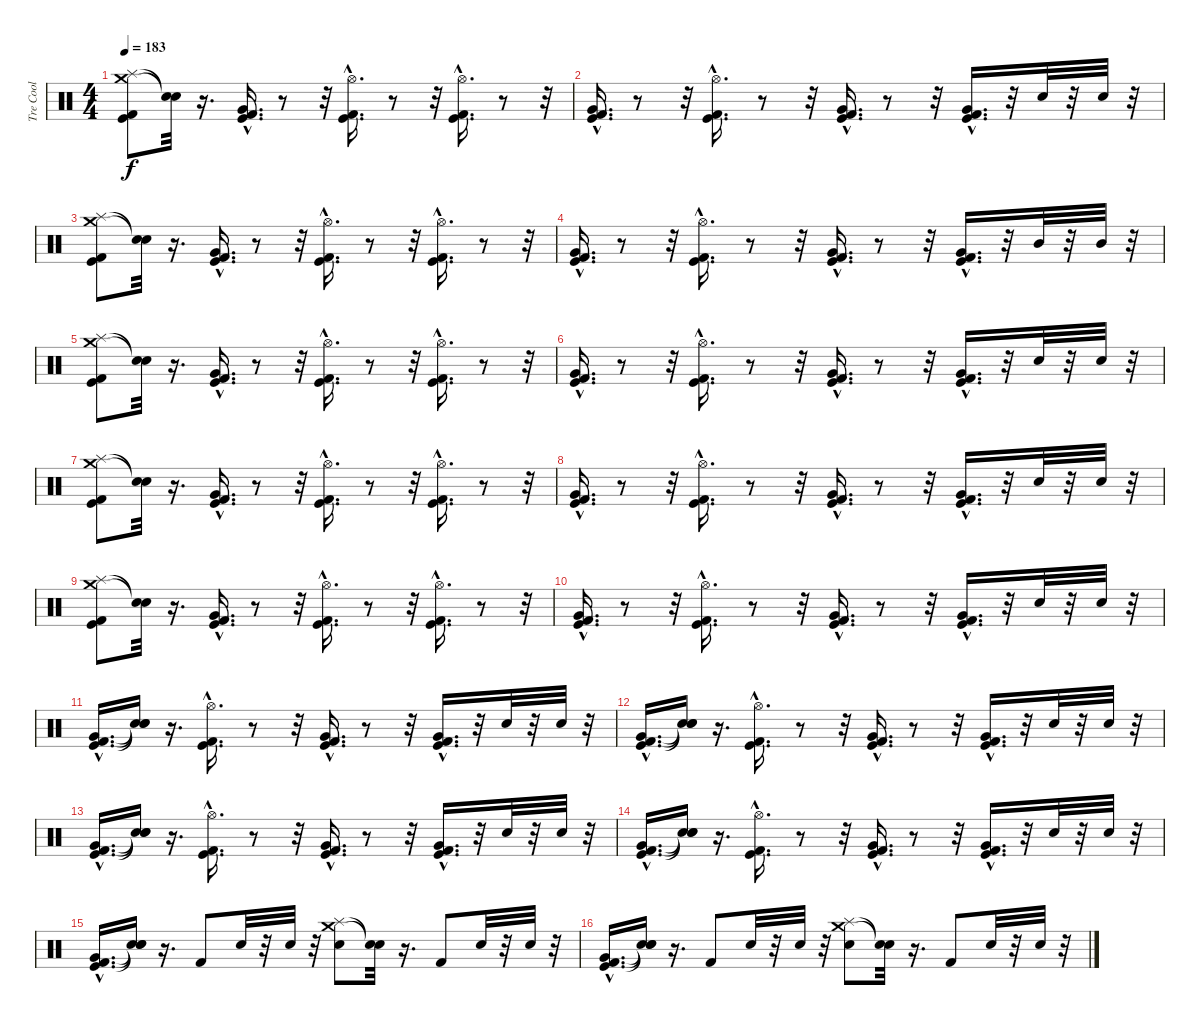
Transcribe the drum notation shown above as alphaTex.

\track ("Tre Cool" "Tre Cool") {instrument percussion}
\staff {score}
\articulation defaults
\ts (4 4)
\tempo 183
\clef neutral
\ks c
("Splash (hit)" "Crash medium (hit)" "Kick (hit)" "Kick (hit) 2").8{dy f} ("Snare (hit)"{t} "Snare (hit)"{t}).32 r.16{d} ("Very Low Tom (hit)"{hac} "Kick (hit)"{hac} "Kick (hit) 2"{hac}).16{d} r.8 r.32 ("Kick (hit) 2"{hac} "Hi-Hat (open)"{hac} "Kick (hit)"{hac}).16{d} r.8 r.32 ("Kick (hit)"{hac} "Kick (hit) 2"{hac} "Hi-Hat (open)"{hac}).16{d} r.8 r.32 |
("Very Low Tom (hit)"{hac} "Kick (hit)"{hac} "Kick (hit) 2"{hac}).16{d} r.8 r.32 ("Kick (hit) 2"{hac} "Hi-Hat (open)"{hac} "Kick (hit)"{hac}).16{d} r.8 r.32 ("Kick (hit)"{hac} "Kick (hit) 2"{hac} "Very Low Tom (hit)"{hac}).16{d} r.8 r.32 ("Kick (hit)"{hac} "Kick (hit) 2"{hac} "Very Low Tom (hit)"{hac}).16{d} r.32 "Electric Snare (hit)".32 r.32 "Electric Snare (hit)".32 r.32 |
("Splash (hit)" "Crash medium (hit)" "Kick (hit)" "Kick (hit) 2").8 ("Snare (hit)"{t} "Snare (hit)"{t}).32 r.16{d} ("Very Low Tom (hit)"{hac} "Kick (hit)"{hac} "Kick (hit) 2"{hac}).16{d} r.8 r.32 ("Kick (hit) 2"{hac} "Hi-Hat (open)"{hac} "Kick (hit)"{hac}).16{d} r.8 r.32 ("Kick (hit)"{hac} "Kick (hit) 2"{hac} "Hi-Hat (open)"{hac}).16{d} r.8 r.32 |
("Very Low Tom (hit)"{hac} "Kick (hit)"{hac} "Kick (hit) 2"{hac}).16{d} r.8 r.32 ("Kick (hit) 2"{hac} "Hi-Hat (open)"{hac} "Kick (hit)"{hac}).16{d} r.8 r.32 ("Kick (hit)"{hac} "Kick (hit) 2"{hac} "Very Low Tom (hit)"{hac}).16{d} r.8 r.32 ("Kick (hit)"{hac} "Kick (hit) 2"{hac} "Very Low Tom (hit)"{hac}).16{d} r.32 "Mid Tom (hit)".32 r.32 "Mid Tom (hit)".32 r.32 |
("Splash (hit)" "Crash medium (hit)" "Kick (hit)" "Kick (hit) 2").8 ("Snare (hit)"{t} "Snare (hit)"{t}).32 r.16{d} ("Very Low Tom (hit)"{hac} "Kick (hit)"{hac} "Kick (hit) 2"{hac}).16{d} r.8 r.32 ("Kick (hit) 2"{hac} "Hi-Hat (open)"{hac} "Kick (hit)"{hac}).16{d} r.8 r.32 ("Kick (hit)"{hac} "Kick (hit) 2"{hac} "Hi-Hat (open)"{hac}).16{d} r.8 r.32 |
("Very Low Tom (hit)"{hac} "Kick (hit)"{hac} "Kick (hit) 2"{hac}).16{d} r.8 r.32 ("Kick (hit) 2"{hac} "Hi-Hat (open)"{hac} "Kick (hit)"{hac}).16{d} r.8 r.32 ("Kick (hit)"{hac} "Kick (hit) 2"{hac} "Very Low Tom (hit)"{hac}).16{d} r.8 r.32 ("Kick (hit)"{hac} "Kick (hit) 2"{hac} "Very Low Tom (hit)"{hac}).16{d} r.32 "Electric Snare (hit)".32 r.32 "Electric Snare (hit)".32 r.32 |
("Splash (hit)" "Crash medium (hit)" "Kick (hit)" "Kick (hit) 2").8 ("Snare (hit)"{t} "Snare (hit)"{t}).32 r.16{d} ("Very Low Tom (hit)"{hac} "Kick (hit)"{hac} "Kick (hit) 2"{hac}).16{d} r.8 r.32 ("Kick (hit) 2"{hac} "Hi-Hat (open)"{hac} "Kick (hit)"{hac}).16{d} r.8 r.32 ("Kick (hit)"{hac} "Kick (hit) 2"{hac} "Hi-Hat (open)"{hac}).16{d} r.8 r.32 |
("Very Low Tom (hit)"{hac} "Kick (hit)"{hac} "Kick (hit) 2"{hac}).16{d} r.8 r.32 ("Kick (hit) 2"{hac} "Hi-Hat (open)"{hac} "Kick (hit)"{hac}).16{d} r.8 r.32 ("Kick (hit)"{hac} "Kick (hit) 2"{hac} "Very Low Tom (hit)"{hac}).16{d} r.8 r.32 ("Kick (hit)"{hac} "Kick (hit) 2"{hac} "Very Low Tom (hit)"{hac}).16{d} r.32 "Electric Snare (hit)".32 r.32 "Electric Snare (hit)".32 r.32 |
("Splash (hit)" "Crash medium (hit)" "Kick (hit)" "Kick (hit) 2").8 ("Snare (hit)"{t} "Snare (hit)"{t}).32 r.16{d} ("Very Low Tom (hit)"{hac} "Kick (hit)"{hac} "Kick (hit) 2"{hac}).16{d} r.8 r.32 ("Kick (hit) 2"{hac} "Hi-Hat (open)"{hac} "Kick (hit)"{hac}).16{d} r.8 r.32 ("Kick (hit)"{hac} "Kick (hit) 2"{hac} "Hi-Hat (open)"{hac}).16{d} r.8 r.32 |
("Very Low Tom (hit)"{hac} "Kick (hit)"{hac} "Kick (hit) 2"{hac}).16{d} r.8 r.32 ("Kick (hit) 2"{hac} "Hi-Hat (open)"{hac} "Kick (hit)"{hac}).16{d} r.8 r.32 ("Kick (hit)"{hac} "Kick (hit) 2"{hac} "Very Low Tom (hit)"{hac}).16{d} r.8 r.32 ("Kick (hit)"{hac} "Kick (hit) 2"{hac} "Very Low Tom (hit)"{hac}).16{d} r.32 "Electric Snare (hit)".32 r.32 "Electric Snare (hit)".32 r.32 |
("Very Low Tom (hit)"{hac} "Kick (hit)"{hac} "Kick (hit) 2"{hac}).16{d} ("Snare (hit)"{t} "Snare (hit)"{t} "Snare (hit)"{t}).16 r.16{d} ("Kick (hit) 2"{hac} "Hi-Hat (open)"{hac} "Kick (hit)"{hac}).16{d} r.8 r.32 ("Kick (hit)"{hac} "Kick (hit) 2"{hac} "Very Low Tom (hit)"{hac}).16{d} r.8 r.32 ("Kick (hit)"{hac} "Kick (hit) 2"{hac} "Very Low Tom (hit)"{hac}).16{d} r.32 "Electric Snare (hit)".32 r.32 "Electric Snare (hit)".32 r.32 |
("Very Low Tom (hit)"{hac} "Kick (hit)"{hac} "Kick (hit) 2"{hac}).16{d} ("Snare (hit)"{t} "Snare (hit)"{t} "Snare (hit)"{t}).16 r.16{d} ("Kick (hit) 2"{hac} "Hi-Hat (open)"{hac} "Kick (hit)"{hac}).16{d} r.8 r.32 ("Kick (hit)"{hac} "Kick (hit) 2"{hac} "Very Low Tom (hit)"{hac}).16{d} r.8 r.32 ("Kick (hit)"{hac} "Kick (hit) 2"{hac} "Very Low Tom (hit)"{hac}).16{d} r.32 "Electric Snare (hit)".32 r.32 "Electric Snare (hit)".32 r.32 |
("Very Low Tom (hit)"{hac} "Kick (hit)"{hac} "Kick (hit) 2"{hac}).16{d} ("Snare (hit)"{t} "Snare (hit)"{t} "Snare (hit)"{t}).16 r.16{d} ("Kick (hit) 2"{hac} "Hi-Hat (open)"{hac} "Kick (hit)"{hac}).16{d} r.8 r.32 ("Kick (hit)"{hac} "Kick (hit) 2"{hac} "Very Low Tom (hit)"{hac}).16{d} r.8 r.32 ("Kick (hit)"{hac} "Kick (hit) 2"{hac} "Very Low Tom (hit)"{hac}).16{d} r.32 "Electric Snare (hit)".32 r.32 "Electric Snare (hit)".32 r.32 |
("Very Low Tom (hit)"{hac} "Kick (hit)"{hac} "Kick (hit) 2"{hac}).16{d} ("Snare (hit)"{t} "Snare (hit)"{t} "Snare (hit)"{t}).16 r.16{d} ("Kick (hit) 2"{hac} "Hi-Hat (open)"{hac} "Kick (hit)"{hac}).16{d} r.8 r.32 ("Kick (hit)"{hac} "Kick (hit) 2"{hac} "Very Low Tom (hit)"{hac}).16{d} r.8 r.32 ("Kick (hit)"{hac} "Kick (hit) 2"{hac} "Very Low Tom (hit)"{hac}).16{d} r.32 "Electric Snare (hit)".32 r.32 "Electric Snare (hit)".32 r.32 |
("Very Low Tom (hit)"{hac} "Kick (hit)"{hac} "Kick (hit) 2"{hac}).16{d} ("Snare (hit)"{t} "Snare (hit)"{t} "Snare (hit)"{t}).16 r.16{d} "Kick (hit) 2".8 "Electric Snare (hit)".32 r.32 "Electric Snare (hit)".32 r.32 ("Splash (hit)" "Crash medium (hit)" "Electric Snare (hit)").8 ("Snare (hit)"{t} "Snare (hit)"{t}).32 r.16{d} "Kick (hit) 2".8 "Electric Snare (hit)".32 r.32 "Electric Snare (hit)".32 r.32 |
("Very Low Tom (hit)"{hac} "Kick (hit)"{hac} "Kick (hit) 2"{hac}).16{d} ("Snare (hit)"{t} "Snare (hit)"{t} "Snare (hit)"{t}).16 r.16{d} "Kick (hit) 2".8 "Electric Snare (hit)".32 r.32 "Electric Snare (hit)".32 r.32 ("Splash (hit)" "Crash medium (hit)" "Electric Snare (hit)").8 ("Snare (hit)"{t} "Snare (hit)"{t}).32 r.16{d} "Kick (hit) 2".8 "Electric Snare (hit)".32 r.32 "Electric Snare (hit)".32 r.32
